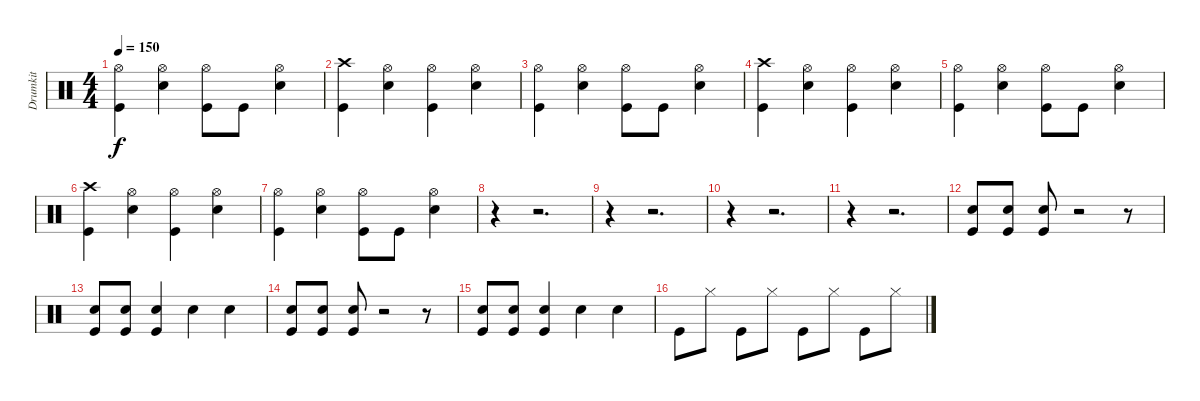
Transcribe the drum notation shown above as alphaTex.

\track ("Drumkit" "Drumkit") {instrument percussion}
\staff {score}
\articulation defaults
\ts (4 4)
\tempo 150
\clef neutral
\ks c
("Hi-Hat (open)" "Kick (hit)").4{dy f} ("Hi-Hat (open)" "Snare (hit) 2").4 ("Hi-Hat (open)" "Kick (hit)").8 "Kick (hit)".8 ("Hi-Hat (open)" "Snare (hit) 2").4 |
("Crash high (hit)" "Kick (hit)").4 ("Hi-Hat (open)" "Snare (hit) 2").4 ("Hi-Hat (open)" "Kick (hit)").4 ("Hi-Hat (open)" "Snare (hit) 2").4 |
("Hi-Hat (open)" "Kick (hit)").4 ("Hi-Hat (open)" "Snare (hit) 2").4 ("Hi-Hat (open)" "Kick (hit)").8 "Kick (hit)".8 ("Hi-Hat (open)" "Snare (hit) 2").4 |
("Crash high (hit)" "Kick (hit)").4 ("Hi-Hat (open)" "Snare (hit) 2").4 ("Hi-Hat (open)" "Kick (hit)").4 ("Hi-Hat (open)" "Snare (hit) 2").4 |
("Hi-Hat (open)" "Kick (hit)").4 ("Hi-Hat (open)" "Snare (hit) 2").4 ("Hi-Hat (open)" "Kick (hit)").8 "Kick (hit)".8 ("Hi-Hat (open)" "Snare (hit) 2").4 |
("Crash high (hit)" "Kick (hit)").4 ("Hi-Hat (open)" "Snare (hit) 2").4 ("Hi-Hat (open)" "Kick (hit)").4 ("Hi-Hat (open)" "Snare (hit) 2").4 |
("Hi-Hat (open)" "Kick (hit)").4 ("Hi-Hat (open)" "Snare (hit) 2").4 ("Hi-Hat (open)" "Kick (hit)").8 "Kick (hit)".8 ("Hi-Hat (open)" "Snare (hit) 2").4 |
r.4 r.2{d} |
r.4 r.2{d} |
r.4 r.2{d} |
r.4 r.2{d} |
("Snare (hit) 2" "Kick (hit)").8 ("Snare (hit) 2" "Kick (hit)").8 ("Snare (hit) 2" "Kick (hit)").8 r.2 r.8 |
("Snare (hit) 2" "Kick (hit)").8 ("Snare (hit) 2" "Kick (hit)").8 ("Snare (hit) 2" "Kick (hit)").4 "Snare (hit) 2".4 "Snare (hit) 2".4 |
("Snare (hit) 2" "Kick (hit)").8 ("Snare (hit) 2" "Kick (hit)").8 ("Snare (hit) 2" "Kick (hit)").8 r.2 r.8 |
("Snare (hit) 2" "Kick (hit)").8 ("Snare (hit) 2" "Kick (hit)").8 ("Snare (hit) 2" "Kick (hit)").4 "Snare (hit) 2".4 "Snare (hit) 2".4 |
"Kick (hit)".8 "Hi-Hat (closed)".8 "Kick (hit)".8 "Hi-Hat (closed)".8 "Kick (hit)".8 "Hi-Hat (closed)".8 "Kick (hit)".8 "Hi-Hat (closed)".8
